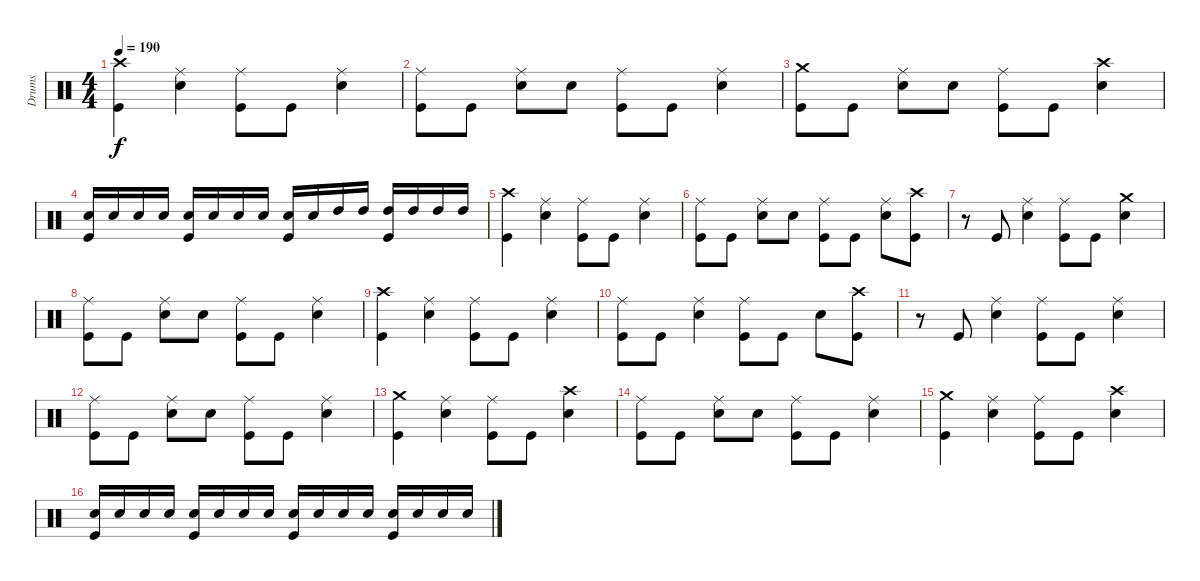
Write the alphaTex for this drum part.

\track ("Drums" "Drums") {instrument percussion}
\staff {score}
\articulation defaults
\ts (4 4)
\tempo 190
\clef neutral
\ks c
("Kick (hit)" "Crash high (hit)").4{dy f} ("Electric Snare (hit)" "Ride (middle)").4 ("Kick (hit)" "Ride (middle)").8 "Kick (hit)".8 ("Electric Snare (hit)" "Ride (middle)").4 |
("Kick (hit)" "Ride (middle)").8 "Kick (hit)".8 ("Electric Snare (hit)" "Ride (middle)").8 "Electric Snare (hit)".8 ("Kick (hit)" "Ride (middle)").8 "Kick (hit)".8 ("Electric Snare (hit)" "Ride (middle)").4 |
("Kick (hit)" "Crash medium (hit)").8 "Kick (hit)".8 ("Electric Snare (hit)" "Ride (middle)").8 "Electric Snare (hit)".8 ("Kick (hit)" "Ride (middle)").8 "Kick (hit)".8 ("Crash high (hit)" "Electric Snare (hit)").4 |
("Kick (hit)" "Electric Snare (hit)").16 "Electric Snare (hit)".16 "Electric Snare (hit)".16 "Electric Snare (hit)".16 ("Kick (hit)" "Electric Snare (hit)").16 "Electric Snare (hit)".16 "Electric Snare (hit)".16 "Electric Snare (hit)".16 ("Kick (hit)" "Electric Snare (hit)").16 "Electric Snare (hit)".16 "High Tom (hit)".16 "High Tom (hit)".16 ("Kick (hit)" "High Tom (hit)").16 "High Tom (hit)".16 "High Tom (hit)".16 "High Tom (hit)".16 |
("Kick (hit)" "Crash high (hit)").4 ("Electric Snare (hit)" "Ride (middle)").4 ("Kick (hit)" "Ride (middle)").8 "Kick (hit)".8 ("Electric Snare (hit)" "Ride (middle)").4 |
("Kick (hit)" "Ride (middle)").8 "Kick (hit)".8 ("Electric Snare (hit)" "Ride (middle)").8 "Electric Snare (hit)".8 ("Kick (hit)" "Ride (middle)").8 "Kick (hit)".8 ("Electric Snare (hit)" "Ride (middle)").8 ("Kick (hit)" "Crash high (hit)").8 |
r.8 "Kick (hit)".8 ("Electric Snare (hit)" "Ride (middle)").4 ("Kick (hit)" "Ride (middle)").8 "Kick (hit)".8 ("Electric Snare (hit)" "Crash medium (hit)").4 |
("Kick (hit)" "Ride (middle)").8 "Kick (hit)".8 ("Electric Snare (hit)" "Ride (middle)").8 "Electric Snare (hit)".8 ("Kick (hit)" "Ride (middle)").8 "Kick (hit)".8 ("Electric Snare (hit)" "Ride (middle)").4 |
("Kick (hit)" "Crash high (hit)").4 ("Electric Snare (hit)" "Ride (middle)").4 ("Kick (hit)" "Ride (middle)").8 "Kick (hit)".8 ("Electric Snare (hit)" "Ride (middle)").4 |
("Kick (hit)" "Ride (middle)").8 "Kick (hit)".8 ("Electric Snare (hit)" "Ride (middle)").4 ("Kick (hit)" "Ride (middle)").8 "Kick (hit)".8 "Electric Snare (hit)".8 ("Kick (hit)" "Crash high (hit)").8 |
r.8 "Kick (hit)".8 ("Electric Snare (hit)" "Ride (middle)").4 ("Kick (hit)" "Ride (middle)").8 "Kick (hit)".8 ("Electric Snare (hit)" "Ride (middle)").4 |
("Kick (hit)" "Ride (middle)").8 "Kick (hit)".8 ("Electric Snare (hit)" "Ride (middle)").8 "Electric Snare (hit)".8 ("Kick (hit)" "Ride (middle)").8 "Kick (hit)".8 ("Electric Snare (hit)" "Ride (middle)").4 |
("Kick (hit)" "Crash medium (hit)").4 ("Electric Snare (hit)" "Ride (middle)").4 ("Kick (hit)" "Ride (middle)").8 "Kick (hit)".8 ("Electric Snare (hit)" "Crash high (hit)").4 |
("Kick (hit)" "Ride (middle)").8 "Kick (hit)".8 ("Electric Snare (hit)" "Ride (middle)").8 "Electric Snare (hit)".8 ("Kick (hit)" "Ride (middle)").8 "Kick (hit)".8 ("Electric Snare (hit)" "Ride (middle)").4 |
("Kick (hit)" "Crash medium (hit)").4 ("Electric Snare (hit)" "Ride (middle)").4 ("Kick (hit)" "Ride (middle)").8 "Kick (hit)".8 ("Electric Snare (hit)" "Crash high (hit)").4 |
("Kick (hit)" "Electric Snare (hit)").16 "Electric Snare (hit)".16 "Electric Snare (hit)".16 "Electric Snare (hit)".16 ("Kick (hit)" "Electric Snare (hit)").16 "Electric Snare (hit)".16 "Electric Snare (hit)".16 "Electric Snare (hit)".16 ("Kick (hit)" "Electric Snare (hit)").16 "Electric Snare (hit)".16 "Electric Snare (hit)".16 "Electric Snare (hit)".16 ("Kick (hit)" "Electric Snare (hit)").16 "Electric Snare (hit)".16 "Electric Snare (hit)".16 "Electric Snare (hit)".16
